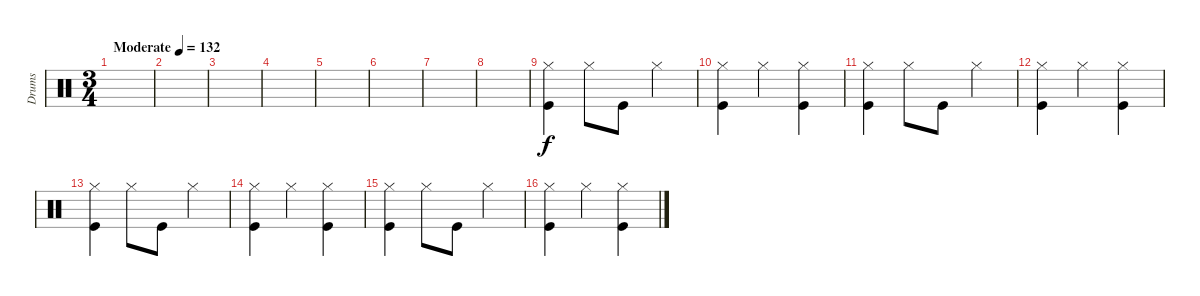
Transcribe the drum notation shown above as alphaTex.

\track ("Drums" "Drums") {instrument percussion}
\staff {score}
\articulation defaults
\ts (3 4)
\tempo (132 "Moderate")
\clef neutral
\ks c
|
|
|
|
|
|
|
|
("Hi-Hat (closed)" "Kick (hit)").4 "Hi-Hat (closed)".8 "Kick (hit)".8 "Hi-Hat (closed)".4 |
("Hi-Hat (closed)" "Kick (hit)").4 "Hi-Hat (closed)".4 ("Hi-Hat (closed)" "Kick (hit)").4 |
("Hi-Hat (closed)" "Kick (hit)").4 "Hi-Hat (closed)".8 "Kick (hit)".8 "Hi-Hat (closed)".4 |
("Hi-Hat (closed)" "Kick (hit)").4 "Hi-Hat (closed)".4 ("Hi-Hat (closed)" "Kick (hit)").4 |
("Hi-Hat (closed)" "Kick (hit)").4 "Hi-Hat (closed)".8 "Kick (hit)".8 "Hi-Hat (closed)".4 |
("Hi-Hat (closed)" "Kick (hit)").4 "Hi-Hat (closed)".4 ("Hi-Hat (closed)" "Kick (hit)").4 |
("Hi-Hat (closed)" "Kick (hit)").4 "Hi-Hat (closed)".8 "Kick (hit)".8 "Hi-Hat (closed)".4 |
("Hi-Hat (closed)" "Kick (hit)").4 "Hi-Hat (closed)".4 ("Hi-Hat (closed)" "Kick (hit)").4
